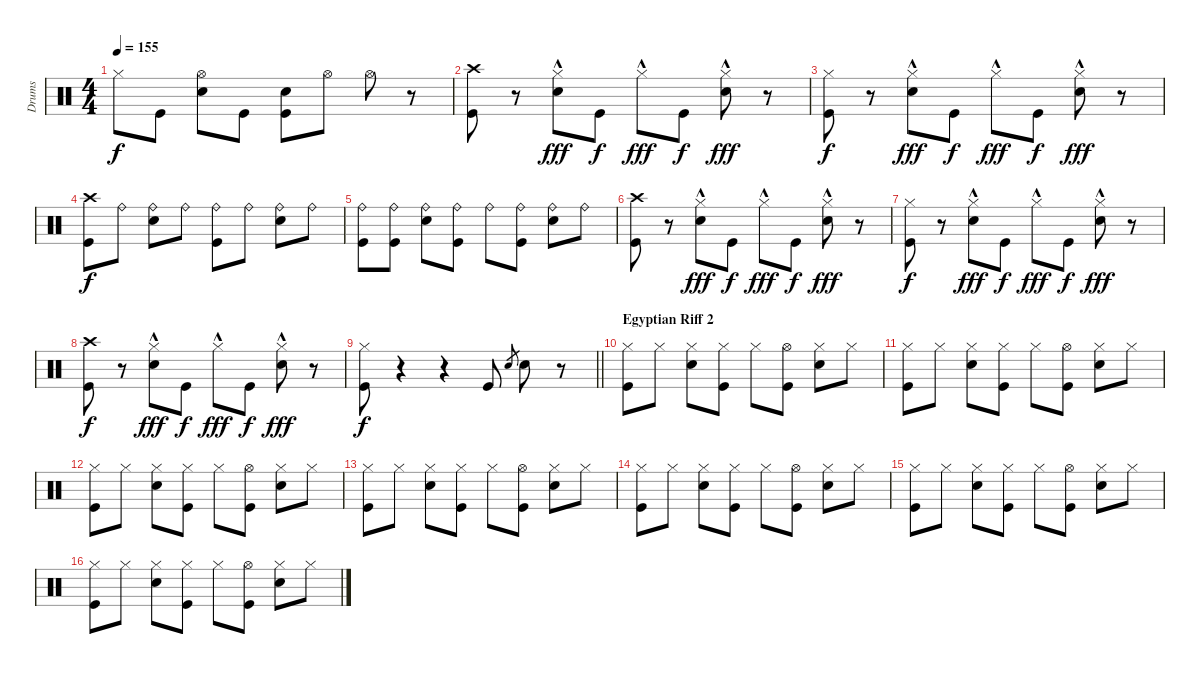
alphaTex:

\track ("Drums" "Drums") {instrument percussion}
\staff {score}
\articulation defaults
\ts (4 4)
\tempo 155
\clef neutral
\ks c "Hi-Hat (closed)".8{dy f} "Kick (hit)".8
("Hi-Hat (open)" "Snare (hit) 2").8 "Kick (hit)".8 ("Snare (hit) 2" "Kick (hit)").8 "Hi-Hat (open)".8 "Hi-Hat (open)".8 r.8 |
("Crash high (hit)" "Kick (hit)").8 r.8 ("Hi-Hat (closed)"{hac} "Snare (hit) 2").8{dy fff} "Kick (hit)".8{dy f} "Hi-Hat (closed)"{hac}.8{dy fff} "Kick (hit)".8{dy f} ("Hi-Hat (closed)"{hac} "Snare (hit) 2").8{dy fff} r.8 |
("Hi-Hat (closed)" "Kick (hit)").8{dy f} r.8 ("Hi-Hat (closed)"{hac} "Snare (hit) 2").8{dy fff} "Kick (hit)".8{dy f} "Hi-Hat (closed)"{hac}.8{dy fff} "Kick (hit)".8{dy f} ("Hi-Hat (closed)"{hac} "Snare (hit) 2").8{dy fff} r.8 |
("Crash high (hit)" "Kick (hit)").8{dy f} "Ride (bell)".8 ("Ride (bell)" "Snare (hit) 2").8 "Ride (bell)".8 ("Ride (bell)" "Kick (hit)").8 "Ride (bell)".8 ("Ride (bell)" "Snare (hit) 2").8 "Ride (bell)".8 |
("Ride (bell)" "Kick (hit)").8 ("Ride (bell)" "Kick (hit)").8 ("Ride (bell)" "Snare (hit) 2").8 ("Ride (bell)" "Kick (hit)").8 "Ride (bell)".8 ("Ride (bell)" "Kick (hit)").8 ("Ride (bell)" "Snare (hit) 2").8 "Ride (bell)".8 |
("Crash high (hit)" "Kick (hit)").8 r.8 ("Hi-Hat (closed)"{hac} "Snare (hit) 2").8{dy fff} "Kick (hit)".8{dy f} "Hi-Hat (closed)"{hac}.8{dy fff} "Kick (hit)".8{dy f} ("Hi-Hat (closed)"{hac} "Snare (hit) 2").8{dy fff} r.8 |
("Hi-Hat (closed)" "Kick (hit)").8{dy f} r.8 ("Hi-Hat (closed)"{hac} "Snare (hit) 2").8{dy fff} "Kick (hit)".8{dy f} "Hi-Hat (closed)"{hac}.8{dy fff} "Kick (hit)".8{dy f} ("Hi-Hat (closed)"{hac} "Snare (hit) 2").8{dy fff} r.8 |
("Crash high (hit)" "Kick (hit)").8{dy f} r.8 ("Hi-Hat (closed)"{hac} "Snare (hit) 2").8{dy fff} "Kick (hit)".8{dy f} "Hi-Hat (closed)"{hac}.8{dy fff} "Kick (hit)".8{dy f} ("Hi-Hat (closed)"{hac} "Snare (hit) 2").8{dy fff} r.8 |
\barLineRight lightlight
("Hi-Hat (closed)" "Kick (hit)").8{dy f} r.4 r.4 "Kick (hit)".8 "Snare (hit) 2".8{gr} "Snare (hit) 2".8 r.8 |
\section ("" "Egyptian Riff 2")
("Hi-Hat (closed)" "Kick (hit)").8 "Hi-Hat (closed)".8 ("Hi-Hat (closed)" "Snare (hit) 2").8 ("Hi-Hat (closed)" "Kick (hit)").8 "Hi-Hat (closed)".8 ("Hi-Hat (open)" "Kick (hit)").8 ("Hi-Hat (closed)" "Snare (hit) 2").8 "Hi-Hat (closed)".8 |
("Hi-Hat (closed)" "Kick (hit)").8 "Hi-Hat (closed)".8 ("Hi-Hat (closed)" "Snare (hit) 2").8 ("Hi-Hat (closed)" "Kick (hit)").8 "Hi-Hat (closed)".8 ("Hi-Hat (open)" "Kick (hit)").8 ("Hi-Hat (closed)" "Snare (hit) 2").8 "Hi-Hat (closed)".8 |
("Hi-Hat (closed)" "Kick (hit)").8 "Hi-Hat (closed)".8 ("Hi-Hat (closed)" "Snare (hit) 2").8 ("Hi-Hat (closed)" "Kick (hit)").8 "Hi-Hat (closed)".8 ("Hi-Hat (open)" "Kick (hit)").8 ("Hi-Hat (closed)" "Snare (hit) 2").8 "Hi-Hat (closed)".8 |
("Hi-Hat (closed)" "Kick (hit)").8 "Hi-Hat (closed)".8 ("Hi-Hat (closed)" "Snare (hit) 2").8 ("Hi-Hat (closed)" "Kick (hit)").8 "Hi-Hat (closed)".8 ("Hi-Hat (open)" "Kick (hit)").8 ("Hi-Hat (closed)" "Snare (hit) 2").8 "Hi-Hat (closed)".8 |
("Hi-Hat (closed)" "Kick (hit)").8 "Hi-Hat (closed)".8 ("Hi-Hat (closed)" "Snare (hit) 2").8 ("Hi-Hat (closed)" "Kick (hit)").8 "Hi-Hat (closed)".8 ("Hi-Hat (open)" "Kick (hit)").8 ("Hi-Hat (closed)" "Snare (hit) 2").8 "Hi-Hat (closed)".8 |
("Hi-Hat (closed)" "Kick (hit)").8 "Hi-Hat (closed)".8 ("Hi-Hat (closed)" "Snare (hit) 2").8 ("Hi-Hat (closed)" "Kick (hit)").8 "Hi-Hat (closed)".8 ("Hi-Hat (open)" "Kick (hit)").8 ("Hi-Hat (closed)" "Snare (hit) 2").8 "Hi-Hat (closed)".8 |
("Hi-Hat (closed)" "Kick (hit)").8 "Hi-Hat (closed)".8 ("Hi-Hat (closed)" "Snare (hit) 2").8 ("Hi-Hat (closed)" "Kick (hit)").8 "Hi-Hat (closed)".8 ("Hi-Hat (open)" "Kick (hit)").8 ("Hi-Hat (closed)" "Snare (hit) 2").8 "Hi-Hat (closed)".8
